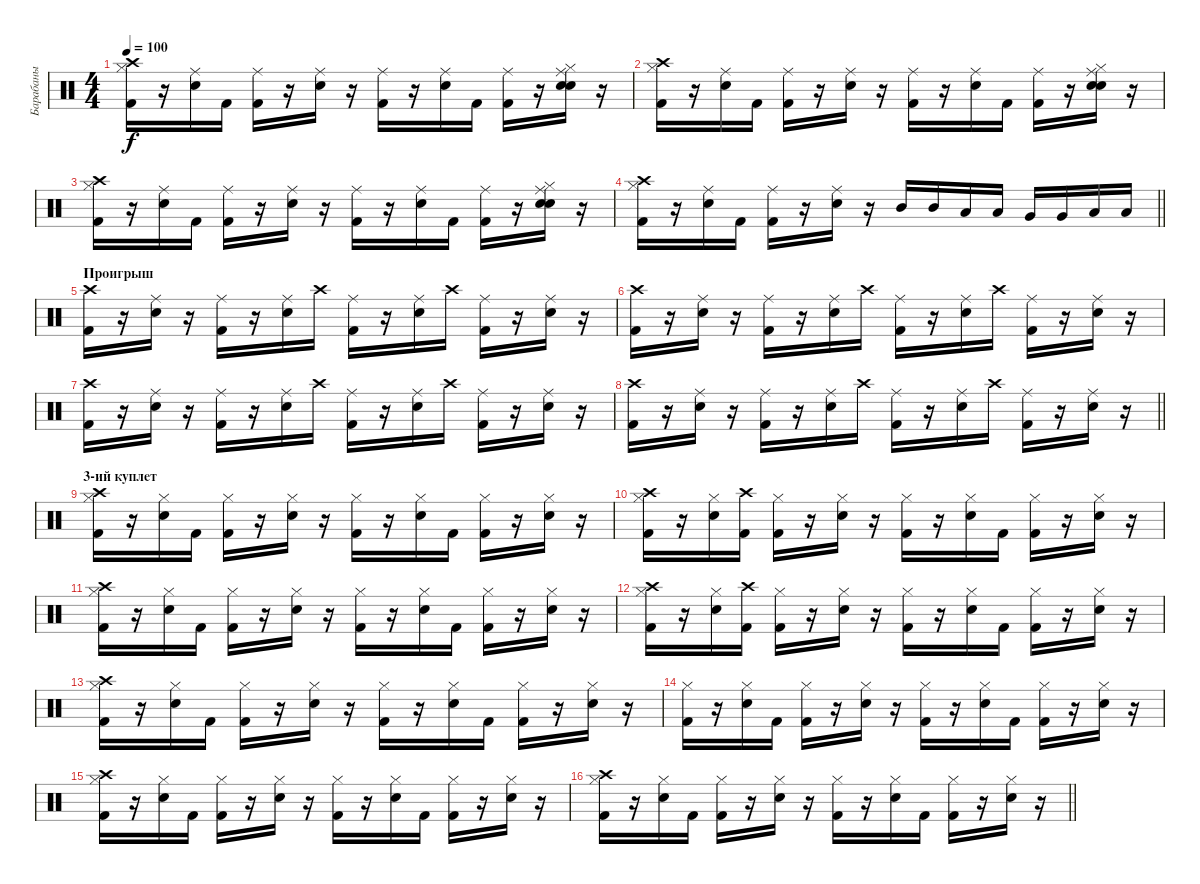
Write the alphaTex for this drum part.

\track ("Барабаны" "Барабаны") {instrument percussion}
\staff {score}
\articulation defaults
\ts (4 4)
\tempo 100
\clef neutral
\ks c
("Kick (hit) 2" "Hi-Hat (closed)" "Crash high (hit)").16{dy f} r.16 ("Electric Snare (hit)" "Ride (middle)").16 "Kick (hit) 2".16 ("Kick (hit) 2" "Ride (middle)").16 r.16 ("Electric Snare (hit)" "Ride (middle)").16 r.16 ("Kick (hit) 2" "Ride (middle)").16 r.16 ("Electric Snare (hit)" "Ride (middle)").16 "Kick (hit) 2".16 ("Kick (hit) 2" "Ride (middle)").16 r.16 ("Electric Snare (hit)" "Hi-Hat (closed)" "Electric Snare (hit)" "Ride (middle)").16 r.16 |
("Kick (hit) 2" "Hi-Hat (closed)" "Crash high (hit)").16 r.16 ("Electric Snare (hit)" "Ride (middle)").16 "Kick (hit) 2".16 ("Kick (hit) 2" "Ride (middle)").16 r.16 ("Electric Snare (hit)" "Ride (middle)").16 r.16 ("Kick (hit) 2" "Ride (middle)").16 r.16 ("Electric Snare (hit)" "Ride (middle)").16 "Kick (hit) 2".16 ("Kick (hit) 2" "Ride (middle)").16 r.16 ("Electric Snare (hit)" "Hi-Hat (closed)" "Electric Snare (hit)" "Ride (middle)").16 r.16 |
("Kick (hit) 2" "Hi-Hat (closed)" "Crash high (hit)").16 r.16 ("Electric Snare (hit)" "Ride (middle)").16 "Kick (hit) 2".16 ("Kick (hit) 2" "Ride (middle)").16 r.16 ("Electric Snare (hit)" "Ride (middle)").16 r.16 ("Kick (hit) 2" "Ride (middle)").16 r.16 ("Electric Snare (hit)" "Ride (middle)").16 "Kick (hit) 2".16 ("Kick (hit) 2" "Ride (middle)").16 r.16 ("Electric Snare (hit)" "Hi-Hat (closed)" "Electric Snare (hit)" "Ride (middle)").16 r.16 |
\barLineRight lightlight
("Kick (hit) 2" "Hi-Hat (closed)" "Crash high (hit)").16 r.16 ("Electric Snare (hit)" "Ride (middle)").16 "Kick (hit) 2".16 ("Kick (hit) 2" "Ride (middle)").16 r.16 ("Electric Snare (hit)" "Ride (middle)").16 r.16 "Mid Tom (hit)".16 "Mid Tom (hit)".16 "Low Tom (hit)".16 "Low Tom (hit)".16 "Very Low Tom (hit)".16 "Very Low Tom (hit)".16 "Low Floor Tom (hit)".16 "Low Floor Tom (hit)".16 |
\section ("" "Проигрыш")
("Kick (hit) 2" "Crash high (hit)").16 r.16 ("Electric Snare (hit)" "Ride (middle)").16 r.16 ("Kick (hit) 2" "Ride (middle)").16 r.16 ("Electric Snare (hit)" "Ride (middle)").16 "Crash high (hit)".16 ("Kick (hit) 2" "Ride (middle)").16 r.16 ("Electric Snare (hit)" "Ride (middle)").16 "Crash high (hit)".16 ("Kick (hit) 2" "Ride (middle)").16 r.16 ("Electric Snare (hit)" "Ride (middle)").16 r.16 |
("Kick (hit) 2" "Crash high (hit)").16 r.16 ("Electric Snare (hit)" "Ride (middle)").16 r.16 ("Kick (hit) 2" "Ride (middle)").16 r.16 ("Electric Snare (hit)" "Ride (middle)").16 "Crash high (hit)".16 ("Kick (hit) 2" "Ride (middle)").16 r.16 ("Electric Snare (hit)" "Ride (middle)").16 "Crash high (hit)".16 ("Kick (hit) 2" "Ride (middle)").16 r.16 ("Electric Snare (hit)" "Ride (middle)").16 r.16 |
("Kick (hit) 2" "Crash high (hit)").16 r.16 ("Electric Snare (hit)" "Ride (middle)").16 r.16 ("Kick (hit) 2" "Ride (middle)").16 r.16 ("Electric Snare (hit)" "Ride (middle)").16 "Crash high (hit)".16 ("Kick (hit) 2" "Ride (middle)").16 r.16 ("Electric Snare (hit)" "Ride (middle)").16 "Crash high (hit)".16 ("Kick (hit) 2" "Ride (middle)").16 r.16 ("Electric Snare (hit)" "Ride (middle)").16 r.16 |
\barLineRight lightlight
("Kick (hit) 2" "Crash high (hit)").16 r.16 ("Electric Snare (hit)" "Ride (middle)").16 r.16 ("Kick (hit) 2" "Ride (middle)").16 r.16 ("Electric Snare (hit)" "Ride (middle)").16 "Crash high (hit)".16 ("Kick (hit) 2" "Ride (middle)").16 r.16 ("Electric Snare (hit)" "Ride (middle)").16 "Crash high (hit)".16 ("Kick (hit) 2" "Ride (middle)").16 r.16 ("Electric Snare (hit)" "Ride (middle)").16 r.16 |
\section ("" "3-ий куплет")
("Kick (hit) 2" "Hi-Hat (closed)" "Crash high (hit)").16 r.16 ("Electric Snare (hit)" "Hi-Hat (closed)").16 "Kick (hit) 2".16 ("Kick (hit) 2" "Hi-Hat (closed)").16 r.16 ("Electric Snare (hit)" "Hi-Hat (closed)").16 r.16 ("Kick (hit) 2" "Hi-Hat (closed)").16 r.16 ("Electric Snare (hit)" "Hi-Hat (closed)").16 "Kick (hit) 2".16 ("Kick (hit) 2" "Hi-Hat (closed)").16 r.16 ("Electric Snare (hit)" "Hi-Hat (closed)").16 r.16 |
("Kick (hit) 2" "Hi-Hat (closed)" "Crash high (hit)").16 r.16 ("Electric Snare (hit)" "Hi-Hat (closed)").16 ("Kick (hit) 2" "Crash high (hit)").16 ("Kick (hit) 2" "Hi-Hat (closed)").16 r.16 ("Electric Snare (hit)" "Hi-Hat (closed)").16 r.16 ("Kick (hit) 2" "Hi-Hat (closed)").16 r.16 ("Electric Snare (hit)" "Hi-Hat (closed)").16 "Kick (hit) 2".16 ("Kick (hit) 2" "Hi-Hat (closed)").16 r.16 ("Electric Snare (hit)" "Hi-Hat (closed)").16 r.16 |
("Kick (hit) 2" "Hi-Hat (closed)" "Crash high (hit)").16 r.16 ("Electric Snare (hit)" "Hi-Hat (closed)").16 "Kick (hit) 2".16 ("Kick (hit) 2" "Hi-Hat (closed)").16 r.16 ("Electric Snare (hit)" "Hi-Hat (closed)").16 r.16 ("Kick (hit) 2" "Hi-Hat (closed)").16 r.16 ("Electric Snare (hit)" "Hi-Hat (closed)").16 "Kick (hit) 2".16 ("Kick (hit) 2" "Hi-Hat (closed)").16 r.16 ("Electric Snare (hit)" "Hi-Hat (closed)").16 r.16 |
("Kick (hit) 2" "Hi-Hat (closed)" "Crash high (hit)").16 r.16 ("Electric Snare (hit)" "Hi-Hat (closed)").16 ("Kick (hit) 2" "Crash high (hit)").16 ("Kick (hit) 2" "Hi-Hat (closed)").16 r.16 ("Electric Snare (hit)" "Hi-Hat (closed)").16 r.16 ("Kick (hit) 2" "Hi-Hat (closed)").16 r.16 ("Electric Snare (hit)" "Hi-Hat (closed)").16 "Kick (hit) 2".16 ("Kick (hit) 2" "Hi-Hat (closed)").16 r.16 ("Electric Snare (hit)" "Hi-Hat (closed)").16 r.16 |
("Kick (hit) 2" "Hi-Hat (closed)" "Crash high (hit)").16 r.16 ("Electric Snare (hit)" "Hi-Hat (closed)").16 "Kick (hit) 2".16 ("Kick (hit) 2" "Hi-Hat (closed)").16 r.16 ("Electric Snare (hit)" "Hi-Hat (closed)").16 r.16 ("Kick (hit) 2" "Hi-Hat (closed)").16 r.16 ("Electric Snare (hit)" "Hi-Hat (closed)").16 "Kick (hit) 2".16 ("Kick (hit) 2" "Hi-Hat (closed)").16 r.16 ("Electric Snare (hit)" "Hi-Hat (closed)").16 r.16 |
("Kick (hit) 2" "Hi-Hat (closed)").16 r.16 ("Electric Snare (hit)" "Hi-Hat (closed)").16 "Kick (hit) 2".16 ("Kick (hit) 2" "Hi-Hat (closed)").16 r.16 ("Electric Snare (hit)" "Hi-Hat (closed)").16 r.16 ("Kick (hit) 2" "Hi-Hat (closed)").16 r.16 ("Electric Snare (hit)" "Hi-Hat (closed)").16 "Kick (hit) 2".16 ("Kick (hit) 2" "Hi-Hat (closed)").16 r.16 ("Electric Snare (hit)" "Hi-Hat (closed)").16 r.16 |
("Kick (hit) 2" "Hi-Hat (closed)" "Crash high (hit)").16 r.16 ("Electric Snare (hit)" "Hi-Hat (closed)").16 "Kick (hit) 2".16 ("Kick (hit) 2" "Hi-Hat (closed)").16 r.16 ("Electric Snare (hit)" "Hi-Hat (closed)").16 r.16 ("Kick (hit) 2" "Hi-Hat (closed)").16 r.16 ("Electric Snare (hit)" "Hi-Hat (closed)").16 "Kick (hit) 2".16 ("Kick (hit) 2" "Hi-Hat (closed)").16 r.16 ("Electric Snare (hit)" "Hi-Hat (closed)").16 r.16 |
\barLineRight lightlight
("Kick (hit) 2" "Hi-Hat (closed)" "Crash high (hit)").16 r.16 ("Electric Snare (hit)" "Hi-Hat (closed)").16 "Kick (hit) 2".16 ("Kick (hit) 2" "Hi-Hat (closed)").16 r.16 ("Electric Snare (hit)" "Hi-Hat (closed)").16 r.16 ("Kick (hit) 2" "Hi-Hat (closed)").16 r.16 ("Electric Snare (hit)" "Hi-Hat (closed)").16 "Kick (hit) 2".16 ("Kick (hit) 2" "Hi-Hat (closed)").16 r.16 ("Electric Snare (hit)" "Hi-Hat (closed)").16 r.16
